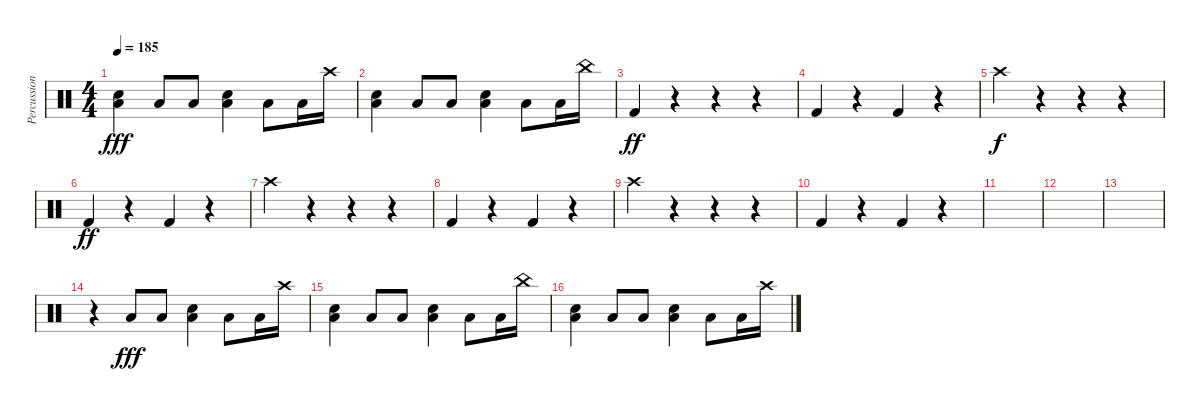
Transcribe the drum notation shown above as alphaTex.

\track ("Percussions" "Percussion") {instrument percussion}
\staff {score}
\articulation defaults
\ts (4 4)
\tempo 185
\clef neutral
\ks c
("Electric Snare (hit)" "Low Tom (hit)").4{dy fff} "Low Tom (hit)".8 "Low Tom (hit)".8 ("Electric Snare (hit)" "Low Tom (hit)").4 "Low Tom (hit)".8 "Low Tom (hit)".16 "Crash high (hit)".16 |
("Electric Snare (hit)" "Low Tom (hit)").4 "Low Tom (hit)".8 "Low Tom (hit)".8 ("Electric Snare (hit)" "Low Tom (hit)").4 "Low Tom (hit)".8 "Low Tom (hit)".16 "China (hit)".16 |
"Kick (hit) 2".4{dy ff} r.4 r.4 r.4 |
"Kick (hit) 2".4 r.4 "Kick (hit) 2".4 r.4 |
"Crash high (hit)".4{dy f} r.4 r.4 r.4 |
"Kick (hit) 2".4{dy ff} r.4 "Kick (hit) 2".4 r.4 |
"Crash high (hit)".4 r.4 r.4 r.4 |
"Kick (hit) 2".4 r.4 "Kick (hit) 2".4 r.4 |
"Crash high (hit)".4 r.4 r.4 r.4 |
"Kick (hit) 2".4 r.4 "Kick (hit) 2".4 r.4 |
|
|
|
r.4 "Low Tom (hit)".8{dy fff} "Low Tom (hit)".8 ("Electric Snare (hit)" "Low Tom (hit)").4 "Low Tom (hit)".8 "Low Tom (hit)".16 "Crash high (hit)".16 |
("Electric Snare (hit)" "Low Tom (hit)").4 "Low Tom (hit)".8 "Low Tom (hit)".8 ("Electric Snare (hit)" "Low Tom (hit)").4 "Low Tom (hit)".8 "Low Tom (hit)".16 "China (hit)".16 |
("Electric Snare (hit)" "Low Tom (hit)").4 "Low Tom (hit)".8 "Low Tom (hit)".8 ("Electric Snare (hit)" "Low Tom (hit)").4 "Low Tom (hit)".8 "Low Tom (hit)".16 "Crash high (hit)".16
